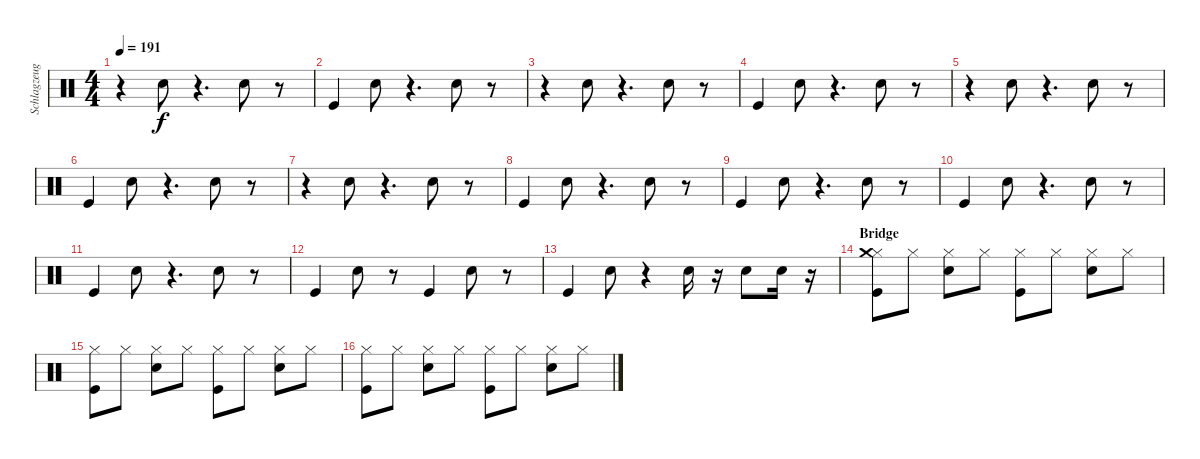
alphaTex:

\track ("Schlagzeug - Bela B." "Schlagzeug") {instrument percussion}
\staff {score}
\articulation defaults
\ts (4 4)
\tempo 191
\clef neutral
\ks c
r.4{dy f} "Electric Snare (hit)".8 r.4{d} "Electric Snare (hit)".8 r.8 |
"Kick (hit)".4 "Electric Snare (hit)".8 r.4{d} "Electric Snare (hit)".8 r.8 |
r.4 "Electric Snare (hit)".8 r.4{d} "Electric Snare (hit)".8 r.8 |
"Kick (hit)".4 "Electric Snare (hit)".8 r.4{d} "Electric Snare (hit)".8 r.8 |
r.4 "Electric Snare (hit)".8 r.4{d} "Electric Snare (hit)".8 r.8 |
"Kick (hit)".4 "Electric Snare (hit)".8 r.4{d} "Electric Snare (hit)".8 r.8 |
r.4 "Electric Snare (hit)".8 r.4{d} "Electric Snare (hit)".8 r.8 |
"Kick (hit)".4 "Electric Snare (hit)".8 r.4{d} "Electric Snare (hit)".8 r.8 |
"Kick (hit)".4 "Electric Snare (hit)".8 r.4{d} "Electric Snare (hit)".8 r.8 |
"Kick (hit)".4 "Electric Snare (hit)".8 r.4{d} "Electric Snare (hit)".8 r.8 |
"Kick (hit)".4 "Electric Snare (hit)".8 r.4{d} "Electric Snare (hit)".8 r.8 |
"Kick (hit)".4 "Electric Snare (hit)".8 r.8 "Kick (hit)".4 "Electric Snare (hit)".8 r.8 |
"Kick (hit)".4 "Electric Snare (hit)".8 r.4 "Electric Snare (hit)".16 r.16 "Electric Snare (hit)".8 "Electric Snare (hit)".16 r.16 |
\section ("" "Bridge")
("Kick (hit)" "Hi-Hat (closed)" "Crash medium (hit)").8 "Hi-Hat (closed)".8 ("Hi-Hat (closed)" "Electric Snare (hit)").8 "Hi-Hat (closed)".8 ("Hi-Hat (closed)" "Kick (hit)").8 "Hi-Hat (closed)".8 ("Hi-Hat (closed)" "Electric Snare (hit)").8 "Hi-Hat (closed)".8 |
("Kick (hit)" "Hi-Hat (closed)").8 "Hi-Hat (closed)".8 ("Hi-Hat (closed)" "Electric Snare (hit)").8 "Hi-Hat (closed)".8 ("Hi-Hat (closed)" "Kick (hit)").8 "Hi-Hat (closed)".8 ("Hi-Hat (closed)" "Electric Snare (hit)").8 "Hi-Hat (closed)".8 |
("Kick (hit)" "Hi-Hat (closed)").8 "Hi-Hat (closed)".8 ("Hi-Hat (closed)" "Electric Snare (hit)").8 "Hi-Hat (closed)".8 ("Hi-Hat (closed)" "Kick (hit)").8 "Hi-Hat (closed)".8 ("Hi-Hat (closed)" "Electric Snare (hit)").8 "Hi-Hat (closed)".8
